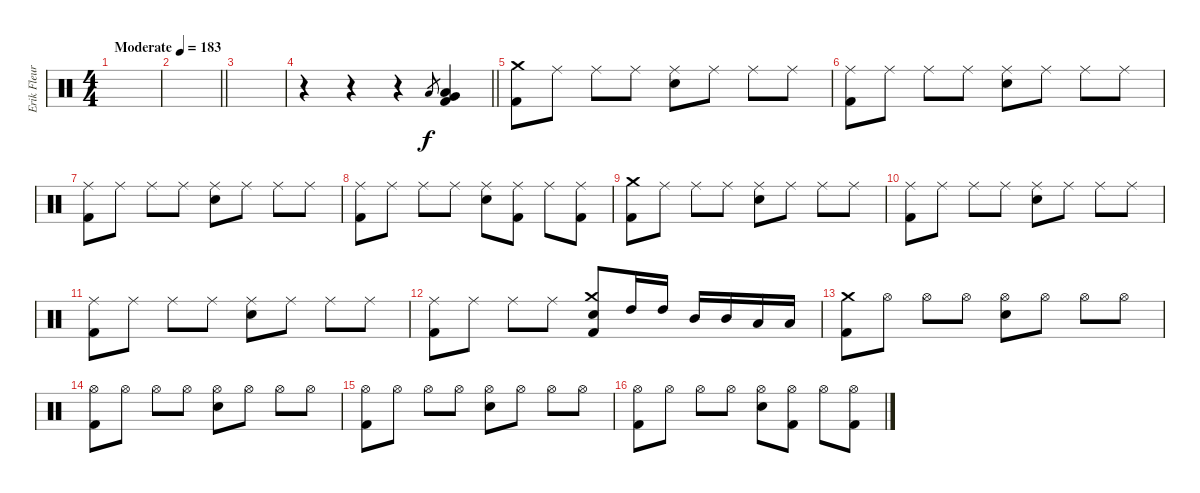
\track ("Erik Fleuren" "Erik Fleur") {instrument percussion}
\staff {score}
\articulation defaults
\ts (4 4)
\tempo (183 "Moderate")
\clef neutral
\ks c
|
\barLineRight lightlight
|
|
\barLineRight lightlight
r.4 r.4 r.4 "Low Floor Tom (hit)".8{gr} ("Low Floor Tom (hit)" "Very Low Tom (hit)" "Kick (hit) 2").4 |
("Crash medium (hit)" "Kick (hit) 2").8 "Ride (middle)".8 "Ride (middle)".8 "Ride (middle)".8 ("Ride (middle)" "Electric Snare (hit)").8 "Ride (middle)".8 "Ride (middle)".8 "Ride (middle)".8 |
("Ride (middle)" "Kick (hit) 2").8 "Ride (middle)".8 "Ride (middle)".8 "Ride (middle)".8 ("Ride (middle)" "Electric Snare (hit)").8 "Ride (middle)".8 "Ride (middle)".8 "Ride (middle)".8 |
("Ride (middle)" "Kick (hit) 2").8 "Ride (middle)".8 "Ride (middle)".8 "Ride (middle)".8 ("Ride (middle)" "Electric Snare (hit)").8 "Ride (middle)".8 "Ride (middle)".8 "Ride (middle)".8 |
("Ride (middle)" "Kick (hit) 2").8 "Ride (middle)".8 "Ride (middle)".8 "Ride (middle)".8 ("Ride (middle)" "Electric Snare (hit)").8 ("Ride (middle)" "Kick (hit) 2").8 "Ride (middle)".8 ("Ride (middle)" "Kick (hit) 2").8 |
("Crash medium (hit)" "Kick (hit) 2").8 "Ride (middle)".8 "Ride (middle)".8 "Ride (middle)".8 ("Ride (middle)" "Electric Snare (hit)").8 "Ride (middle)".8 "Ride (middle)".8 "Ride (middle)".8 |
("Ride (middle)" "Kick (hit) 2").8 "Ride (middle)".8 "Ride (middle)".8 "Ride (middle)".8 ("Ride (middle)" "Electric Snare (hit)").8 "Ride (middle)".8 "Ride (middle)".8 "Ride (middle)".8 |
("Ride (middle)" "Kick (hit) 2").8 "Ride (middle)".8 "Ride (middle)".8 "Ride (middle)".8 ("Ride (middle)" "Electric Snare (hit)").8 "Ride (middle)".8 "Ride (middle)".8 "Ride (middle)".8 |
("Ride (middle)" "Kick (hit) 2").8 "Ride (middle)".8 "Ride (middle)".8 "Ride (middle)".8 ("Crash medium (hit)" "Electric Snare (hit)" "Kick (hit) 2").8 "High Tom (hit)".16 "High Tom (hit)".16 "Mid Tom (hit)".16 "Mid Tom (hit)".16 "Low Tom (hit)".16 "Low Tom (hit)".16 |
("Crash medium (hit)" "Kick (hit) 2").8 "Hi-Hat (open)".8 "Hi-Hat (open)".8 "Hi-Hat (open)".8 ("Hi-Hat (open)" "Electric Snare (hit)").8 "Hi-Hat (open)".8 "Hi-Hat (open)".8 "Hi-Hat (open)".8 |
("Hi-Hat (open)" "Kick (hit) 2").8 "Hi-Hat (open)".8 "Hi-Hat (open)".8 "Hi-Hat (open)".8 ("Hi-Hat (open)" "Electric Snare (hit)").8 "Hi-Hat (open)".8 "Hi-Hat (open)".8 "Hi-Hat (open)".8 |
("Hi-Hat (open)" "Kick (hit) 2").8 "Hi-Hat (open)".8 "Hi-Hat (open)".8 "Hi-Hat (open)".8 ("Hi-Hat (open)" "Electric Snare (hit)").8 "Hi-Hat (open)".8 "Hi-Hat (open)".8 "Hi-Hat (open)".8 |
("Hi-Hat (open)" "Kick (hit) 2").8 "Hi-Hat (open)".8 "Hi-Hat (open)".8 "Hi-Hat (open)".8 ("Hi-Hat (open)" "Electric Snare (hit)").8 ("Hi-Hat (open)" "Kick (hit) 2").8 "Hi-Hat (open)".8 ("Hi-Hat (open)" "Kick (hit) 2").8
